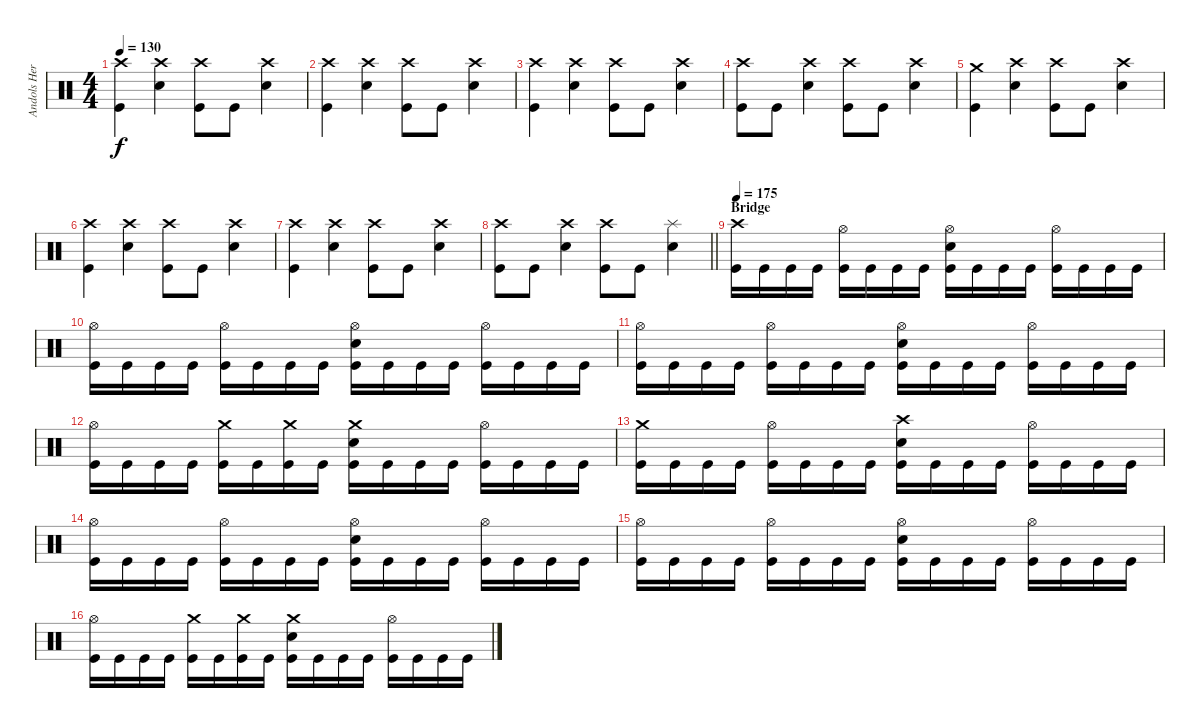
\track ("Andols Herrick" "Andols Her") {instrument percussion}
\staff {score}
\articulation defaults
\ts (4 4)
\tempo 130
\clef neutral
\ks c
("Crash high (hit)" "Kick (hit)").4{dy f} ("Crash high (hit)" "Electric Snare (hit)").4 ("Crash high (hit)" "Kick (hit)").8 "Kick (hit)".8 ("Crash high (hit)" "Electric Snare (hit)").4 |
("Crash high (hit)" "Kick (hit)").4 ("Crash high (hit)" "Electric Snare (hit)").4 ("Crash high (hit)" "Kick (hit)").8 "Kick (hit)".8 ("Crash high (hit)" "Electric Snare (hit)").4 |
("Crash high (hit)" "Kick (hit)").4 ("Crash high (hit)" "Electric Snare (hit)").4 ("Crash high (hit)" "Kick (hit)").8 "Kick (hit)".8 ("Crash high (hit)" "Electric Snare (hit)").4 |
("Crash high (hit)" "Kick (hit)").8 "Kick (hit)".8 ("Crash high (hit)" "Electric Snare (hit)").4 ("Crash high (hit)" "Kick (hit)").8 "Kick (hit)".8 ("Crash high (hit)" "Electric Snare (hit)").4 |
("Crash medium (hit)" "Kick (hit)").4 ("Crash high (hit)" "Electric Snare (hit)").4 ("Crash high (hit)" "Kick (hit)").8 "Kick (hit)".8 ("Crash high (hit)" "Electric Snare (hit)").4 |
("Crash high (hit)" "Kick (hit)").4 ("Crash high (hit)" "Electric Snare (hit)").4 ("Crash high (hit)" "Kick (hit)").8 "Kick (hit)".8 ("Crash high (hit)" "Electric Snare (hit)").4 |
("Crash high (hit)" "Kick (hit)").4 ("Crash high (hit)" "Electric Snare (hit)").4 ("Crash high (hit)" "Kick (hit)").8 "Kick (hit)".8 ("Crash high (hit)" "Electric Snare (hit)").4 |
\barLineRight lightlight
("Crash high (hit)" "Kick (hit)").8 "Kick (hit)".8 ("Crash high (hit)" "Electric Snare (hit)").4 ("Crash high (hit)" "Kick (hit)").8 "Kick (hit)".8 ("Splash (hit)" "Electric Snare (hit)").4 |
\section ("" "Bridge")
\tempo 175
("Crash high (hit)" "Kick (hit)").16 "Kick (hit)".16 "Kick (hit)".16 "Kick (hit)".16 ("Hi-Hat (open)" "Kick (hit)").16 "Kick (hit)".16 "Kick (hit)".16 "Kick (hit)".16 ("Hi-Hat (open)" "Electric Snare (hit)" "Kick (hit)").16 "Kick (hit)".16 "Kick (hit)".16 "Kick (hit)".16 ("Hi-Hat (open)" "Kick (hit)").16 "Kick (hit)".16 "Kick (hit)".16 "Kick (hit)".16 |
("Hi-Hat (open)" "Kick (hit)").16 "Kick (hit)".16 "Kick (hit)".16 "Kick (hit)".16 ("Hi-Hat (open)" "Kick (hit)").16 "Kick (hit)".16 "Kick (hit)".16 "Kick (hit)".16 ("Hi-Hat (open)" "Electric Snare (hit)" "Kick (hit)").16 "Kick (hit)".16 "Kick (hit)".16 "Kick (hit)".16 ("Hi-Hat (open)" "Kick (hit)").16 "Kick (hit)".16 "Kick (hit)".16 "Kick (hit)".16 |
("Hi-Hat (open)" "Kick (hit)").16 "Kick (hit)".16 "Kick (hit)".16 "Kick (hit)".16 ("Hi-Hat (open)" "Kick (hit)").16 "Kick (hit)".16 "Kick (hit)".16 "Kick (hit)".16 ("Hi-Hat (open)" "Electric Snare (hit)" "Kick (hit)").16 "Kick (hit)".16 "Kick (hit)".16 "Kick (hit)".16 ("Hi-Hat (open)" "Kick (hit)").16 "Kick (hit)".16 "Kick (hit)".16 "Kick (hit)".16 |
("Hi-Hat (open)" "Kick (hit)").16 "Kick (hit)".16 "Kick (hit)".16 "Kick (hit)".16 ("Crash medium (hit)" "Kick (hit)").16 "Kick (hit)".16 ("Crash medium (hit)" "Kick (hit)").16 "Kick (hit)".16 ("Crash medium (hit)" "Electric Snare (hit)" "Kick (hit)").16 "Kick (hit)".16 "Kick (hit)".16 "Kick (hit)".16 ("Hi-Hat (open)" "Kick (hit)").16 "Kick (hit)".16 "Kick (hit)".16 "Kick (hit)".16 |
("Crash medium (hit)" "Kick (hit)").16 "Kick (hit)".16 "Kick (hit)".16 "Kick (hit)".16 ("Hi-Hat (open)" "Kick (hit)").16 "Kick (hit)".16 "Kick (hit)".16 "Kick (hit)".16 ("Crash high (hit)" "Electric Snare (hit)" "Kick (hit)").16 "Kick (hit)".16 "Kick (hit)".16 "Kick (hit)".16 ("Hi-Hat (open)" "Kick (hit)").16 "Kick (hit)".16 "Kick (hit)".16 "Kick (hit)".16 |
("Hi-Hat (open)" "Kick (hit)").16 "Kick (hit)".16 "Kick (hit)".16 "Kick (hit)".16 ("Hi-Hat (open)" "Kick (hit)").16 "Kick (hit)".16 "Kick (hit)".16 "Kick (hit)".16 ("Hi-Hat (open)" "Electric Snare (hit)" "Kick (hit)").16 "Kick (hit)".16 "Kick (hit)".16 "Kick (hit)".16 ("Hi-Hat (open)" "Kick (hit)").16 "Kick (hit)".16 "Kick (hit)".16 "Kick (hit)".16 |
("Hi-Hat (open)" "Kick (hit)").16 "Kick (hit)".16 "Kick (hit)".16 "Kick (hit)".16 ("Hi-Hat (open)" "Kick (hit)").16 "Kick (hit)".16 "Kick (hit)".16 "Kick (hit)".16 ("Hi-Hat (open)" "Electric Snare (hit)" "Kick (hit)").16 "Kick (hit)".16 "Kick (hit)".16 "Kick (hit)".16 ("Hi-Hat (open)" "Kick (hit)").16 "Kick (hit)".16 "Kick (hit)".16 "Kick (hit)".16 |
("Hi-Hat (open)" "Kick (hit)").16 "Kick (hit)".16 "Kick (hit)".16 "Kick (hit)".16 ("Crash medium (hit)" "Kick (hit)").16 "Kick (hit)".16 ("Crash medium (hit)" "Kick (hit)").16 "Kick (hit)".16 ("Crash medium (hit)" "Electric Snare (hit)" "Kick (hit)").16 "Kick (hit)".16 "Kick (hit)".16 "Kick (hit)".16 ("Hi-Hat (open)" "Kick (hit)").16 "Kick (hit)".16 "Kick (hit)".16 "Kick (hit)".16
